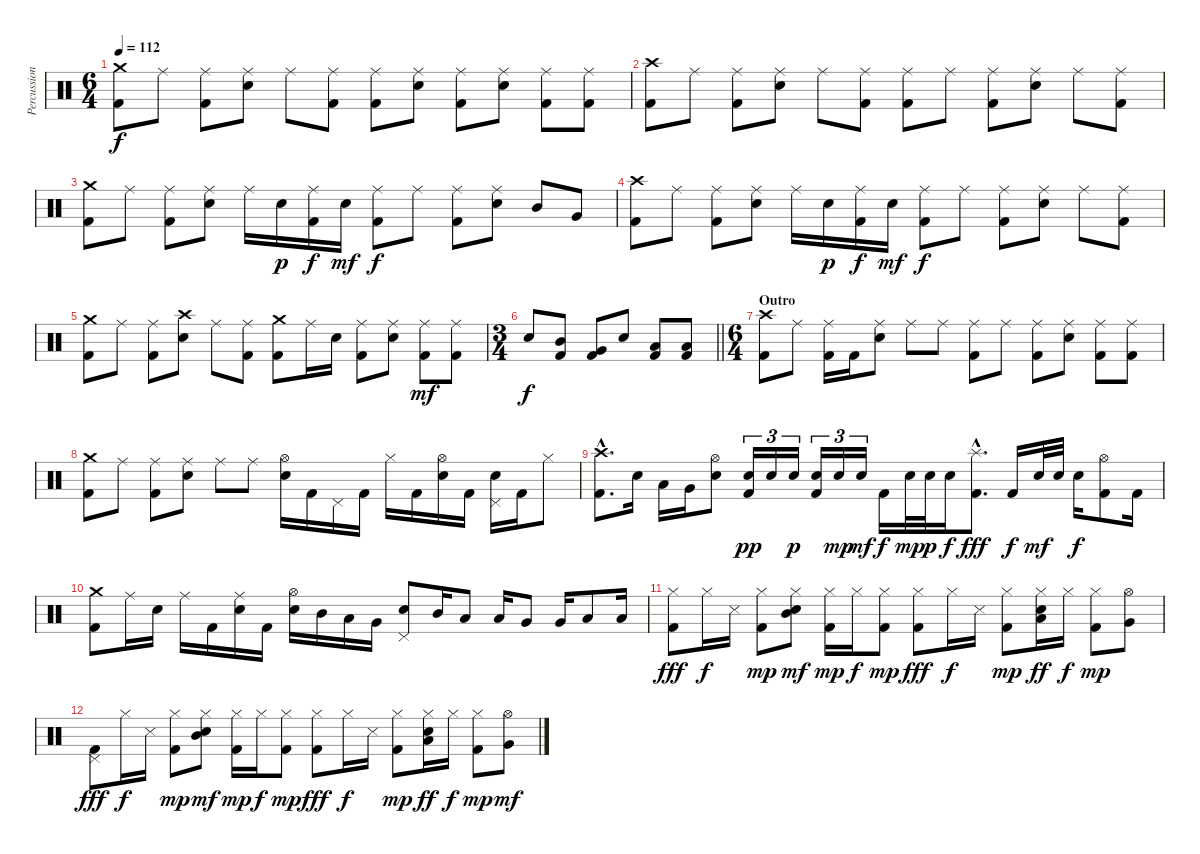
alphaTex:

\track ("Percussion" "Percussion") {instrument percussion}
\staff {score}
\articulation defaults
\ts (6 4)
\tempo 112
\clef neutral
\ks c
("Crash medium (hit)" "Kick (hit) 2").8{dy f} "Ride (middle)".8 ("Ride (middle)" "Kick (hit) 2").8 ("Ride (middle)" "Snare (hit) 2").8 "Ride (middle)".8 ("Ride (middle)" "Kick (hit) 2").8 ("Ride (middle)" "Kick (hit) 2").8 ("Ride (middle)" "Snare (hit) 2").8 ("Ride (middle)" "Kick (hit) 2").8 ("Ride (middle)" "Snare (hit) 2").8 ("Ride (middle)" "Kick (hit) 2").8 ("Ride (middle)" "Kick (hit) 2").8 |
("Crash high (hit)" "Kick (hit) 2").8 "Ride (middle)".8 ("Ride (middle)" "Kick (hit) 2").8 ("Ride (middle)" "Snare (hit) 2").8 "Ride (middle)".8 ("Ride (middle)" "Kick (hit) 2").8 ("Ride (middle)" "Kick (hit) 2").8 "Ride (middle)".8 ("Ride (middle)" "Kick (hit) 2").8 ("Ride (middle)" "Snare (hit) 2").8 "Ride (middle)".8 ("Ride (middle)" "Kick (hit) 2").8 |
("Crash medium (hit)" "Kick (hit) 2").8 "Ride (middle)".8 ("Ride (middle)" "Kick (hit) 2").8 ("Ride (middle)" "Snare (hit) 2").8 "Ride (middle)".16 "Snare (hit) 2".16{dy p} ("Ride (middle)" "Kick (hit) 2").16{dy f} "Snare (hit) 2".16{dy mf} ("Ride (middle)" "Kick (hit) 2").8{dy f} "Ride (middle)".8 ("Ride (middle)" "Kick (hit) 2").8 ("Ride (middle)" "Snare (hit) 2").8 "Mid Tom (hit)".8 "Very Low Tom (hit)".8 |
("Crash high (hit)" "Kick (hit) 2").8 "Ride (middle)".8 ("Ride (middle)" "Kick (hit) 2").8 ("Ride (middle)" "Snare (hit) 2").8 "Ride (middle)".16 "Snare (hit) 2".16{dy p} ("Ride (middle)" "Kick (hit) 2").16{dy f} "Snare (hit) 2".16{dy mf} ("Ride (middle)" "Kick (hit) 2").8{dy f} "Ride (middle)".8 ("Ride (middle)" "Kick (hit) 2").8 ("Ride (middle)" "Snare (hit) 2").8 "Ride (middle)".8 ("Ride (middle)" "Kick (hit) 2").8 |
("Crash medium (hit)" "Kick (hit) 2").8 "Ride (middle)".8 ("Ride (middle)" "Kick (hit) 2").8 ("Crash high (hit)" "Snare (hit) 2").8 "Ride (middle)".8 ("Ride (middle)" "Kick (hit) 2").8 ("Crash medium (hit)" "Kick (hit) 2").8 "Ride (middle)".16 "Snare (hit) 2".16 ("Ride (middle)" "Kick (hit) 2").8 ("Ride (middle)" "Snare (hit) 2").8 ("Ride (middle)" "Kick (hit) 2").8{dy mf} ("Ride (middle)" "Kick (hit) 2").8 |
\ts (3 4)
\barLineRight lightlight "Snare (hit) 2".8{dy f}
("Mid Tom (hit)" "Kick (hit) 2").8 ("Very Low Tom (hit)" "Kick (hit) 2").8 "Snare (hit) 2".8 ("Low Tom (hit)" "Kick (hit) 2").8 ("Low Floor Tom (hit)" "Kick (hit) 2").8 |
\ts (6 4)
\section ("" "Outro")
("Crash high (hit)" "Kick (hit) 2").8 "Ride (middle)".8 ("Ride (middle)" "Kick (hit) 2").16 "Kick (hit) 2".16 ("Ride (middle)" "Snare (hit) 2").8 "Ride (middle)".8 "Ride (middle)".8 ("Ride (middle)" "Kick (hit) 2").8 "Ride (middle)".8 ("Ride (middle)" "Kick (hit) 2").8 ("Ride (middle)" "Snare (hit) 2").8 ("Ride (middle)" "Kick (hit) 2").8 ("Ride (middle)" "Kick (hit) 2").8 |
("Crash medium (hit)" "Kick (hit) 2").8 "Ride (middle)".8 ("Ride (middle)" "Kick (hit) 2").8 ("Ride (middle)" "Snare (hit) 2").8 "Ride (middle)".8 "Ride (middle)".8 ("Hi-Hat (open)" "Snare (hit) 2").16 "Kick (hit) 2".16 "Pedal Hi-Hat (hit)".16 "Kick (hit) 2".16 "Hi-Hat (closed)".16 "Kick (hit) 2".16 ("Hi-Hat (open)" "Snare (hit) 2").16 "Kick (hit) 2".16 ("Pedal Hi-Hat (hit)" "Snare (hit) 2").16 "Kick (hit) 2".16 "Hi-Hat (closed)".8 |
("Crash high (hit)"{hac} "Kick (hit) 2"{hac}).8{d} "Snare (hit) 2".16 "Low Tom (hit)".16 "Very Low Tom (hit)".16 ("Hi-Hat (open)" "Snare (hit) 2").8 ("Snare (hit) 2" "Kick (hit) 2").16{tu (3 2) dy pp} "Snare (hit) 2".16{tu (3 2)} "Snare (hit) 2".16{tu (3 2) dy p} ("Snare (hit) 2" "Kick (hit) 2").16{tu (3 2)} "Snare (hit) 2".16{tu (3 2) dy mp} "Snare (hit) 2".16{tu (3 2) dy mf} "Kick (hit) 2".16{dy f} "Snare (hit) 2".32{dy mp} "Snare (hit) 2".32{dy p} "Snare (hit) 2".16{dy f} ("Splash (hit)"{hac} "Kick (hit) 2"{hac}).8{d dy fff} "Kick (hit) 2".16{dy f} "Snare (hit) 2".32{dy mf} "Snare (hit) 2".32 "Snare (hit) 2".16{dy f} ("Hi-Hat (open)" "Kick (hit) 2").8 "Kick (hit) 2".16 |
("Crash medium (hit)" "Kick (hit) 2").8 "Ride (middle)".16 "Snare (hit) 2".16 "Ride (middle)".16 "Kick (hit) 2".16 ("Ride (middle)" "Snare (hit) 2").16 "Kick (hit) 2".16 ("Hi-Hat (open)" "Snare (hit) 2").16 "Mid Tom (hit)".16 "Low Tom (hit)".16 "Very Low Tom (hit)".16 ("Pedal Hi-Hat (hit)" "Snare (hit) 2").8 "Mid Tom (hit)".16 "Low Tom (hit)".8 "Low Tom (hit)".16 "Very Low Tom (hit)".8 "Very Low Tom (hit)".16 "Low Floor Tom (hit)".8 "Low Floor Tom (hit)".16 |
("Hi-Hat (closed)" "Kick (hit) 2").8{dy fff} "Hi-Hat (closed)".16{dy f} "Snare (side stick) 3".16 ("Hi-Hat (closed)" "Kick (hit) 2").8{dy mp} ("Hi-Hat (closed)" "Snare (hit) 2" "Mid Tom (hit)").8{dy mf} ("Hi-Hat (closed)" "Kick (hit) 2").16{dy mp} "Hi-Hat (closed)".16{dy f} ("Hi-Hat (closed)" "Kick (hit) 2").8{dy mp} ("Hi-Hat (closed)" "Kick (hit) 2").8{dy fff} "Hi-Hat (closed)".16{dy f} "Snare (side stick) 3".16 ("Hi-Hat (closed)" "Kick (hit) 2").8{dy mp} ("Hi-Hat (closed)" "Snare (hit) 2" "Low Floor Tom (hit)").16{dy ff} "Hi-Hat (closed)".16{dy f} ("Hi-Hat (closed)" "Kick (hit) 2").8{dy mp} ("Hi-Hat (open)" "Very Low Tom (hit)").8 |
("Pedal Hi-Hat (hit)" "Kick (hit) 2").8{dy fff} "Hi-Hat (closed)".16{dy f} "Snare (side stick) 3".16 ("Hi-Hat (closed)" "Kick (hit) 2").8{dy mp} ("Hi-Hat (closed)" "Snare (hit) 2" "Mid Tom (hit)").8{dy mf} ("Hi-Hat (closed)" "Kick (hit) 2").16{dy mp} "Hi-Hat (closed)".16{dy f} ("Hi-Hat (closed)" "Kick (hit) 2").8{dy mp} ("Hi-Hat (closed)" "Kick (hit) 2").8{dy fff} "Hi-Hat (closed)".16{dy f} "Snare (side stick) 3".16 ("Hi-Hat (closed)" "Kick (hit) 2").8{dy mp} ("Hi-Hat (closed)" "Snare (hit) 2" "Low Floor Tom (hit)").16{dy ff} "Hi-Hat (closed)".16{dy f} ("Hi-Hat (closed)" "Kick (hit) 2").8{dy mp} ("Hi-Hat (open)" "Very Low Tom (hit)").8{dy mf}
